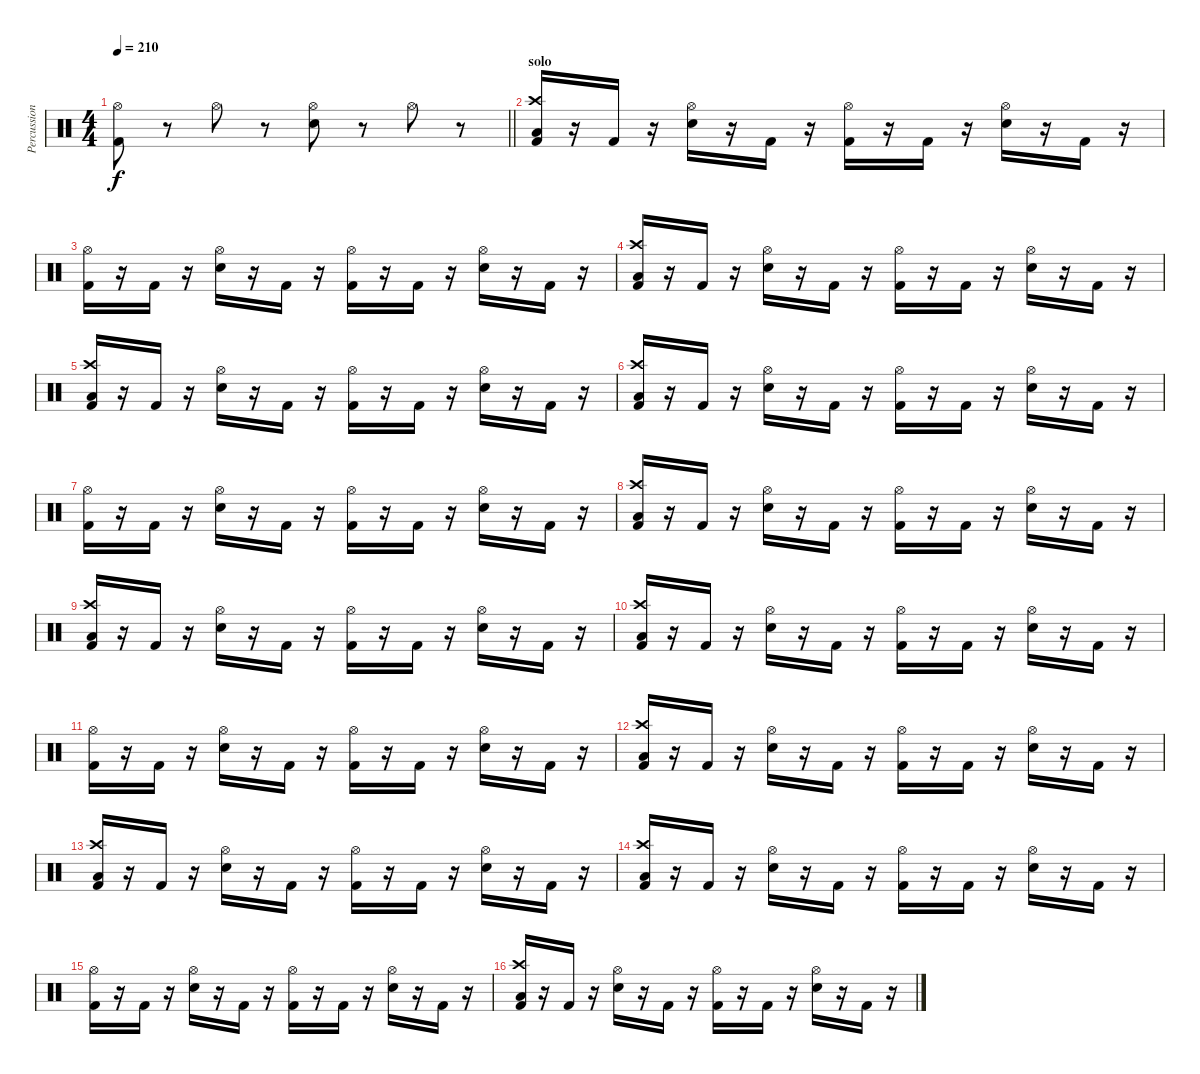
\track ("Percussion" "Percussion") {instrument percussion}
\staff {score}
\articulation defaults
\ts (4 4)
\tempo 210
\clef neutral
\barLineRight lightlight
\ks c
("Hi-Hat (open)" "Kick (hit) 2").8{dy f} r.8 "Hi-Hat (open)".8 r.8 ("Hi-Hat (open)" "Snare (hit) 2").8 r.8 "Hi-Hat (open)".8 r.8 |
\section ("" "solo")
("Crash high (hit)" "Low Floor Tom (hit)" "Kick (hit) 2").16 r.16 "Kick (hit) 2".16 r.16 ("Hi-Hat (open)" "Snare (hit) 2").16 r.16 "Kick (hit) 2".16 r.16 ("Hi-Hat (open)" "Kick (hit) 2").16 r.16 "Kick (hit) 2".16 r.16 ("Hi-Hat (open)" "Snare (hit) 2").16 r.16 "Kick (hit) 2".16 r.16 |
("Hi-Hat (open)" "Kick (hit) 2").16 r.16 "Kick (hit) 2".16 r.16 ("Hi-Hat (open)" "Snare (hit) 2").16 r.16 "Kick (hit) 2".16 r.16 ("Hi-Hat (open)" "Kick (hit) 2").16 r.16 "Kick (hit) 2".16 r.16 ("Hi-Hat (open)" "Snare (hit) 2").16 r.16 "Kick (hit) 2".16 r.16 |
("Crash high (hit)" "Low Floor Tom (hit)" "Kick (hit) 2").16 r.16 "Kick (hit) 2".16 r.16 ("Hi-Hat (open)" "Snare (hit) 2").16 r.16 "Kick (hit) 2".16 r.16 ("Hi-Hat (open)" "Kick (hit) 2").16 r.16 "Kick (hit) 2".16 r.16 ("Hi-Hat (open)" "Snare (hit) 2").16 r.16 "Kick (hit) 2".16 r.16 |
("Crash high (hit)" "Low Floor Tom (hit)" "Kick (hit) 2").16 r.16 "Kick (hit) 2".16 r.16 ("Hi-Hat (open)" "Snare (hit) 2").16 r.16 "Kick (hit) 2".16 r.16 ("Hi-Hat (open)" "Kick (hit) 2").16 r.16 "Kick (hit) 2".16 r.16 ("Hi-Hat (open)" "Snare (hit) 2").16 r.16 "Kick (hit) 2".16 r.16 |
("Crash high (hit)" "Low Floor Tom (hit)" "Kick (hit) 2").16 r.16 "Kick (hit) 2".16 r.16 ("Hi-Hat (open)" "Snare (hit) 2").16 r.16 "Kick (hit) 2".16 r.16 ("Hi-Hat (open)" "Kick (hit) 2").16 r.16 "Kick (hit) 2".16 r.16 ("Hi-Hat (open)" "Snare (hit) 2").16 r.16 "Kick (hit) 2".16 r.16 |
("Hi-Hat (open)" "Kick (hit) 2").16 r.16 "Kick (hit) 2".16 r.16 ("Hi-Hat (open)" "Snare (hit) 2").16 r.16 "Kick (hit) 2".16 r.16 ("Hi-Hat (open)" "Kick (hit) 2").16 r.16 "Kick (hit) 2".16 r.16 ("Hi-Hat (open)" "Snare (hit) 2").16 r.16 "Kick (hit) 2".16 r.16 |
("Crash high (hit)" "Low Floor Tom (hit)" "Kick (hit) 2").16 r.16 "Kick (hit) 2".16 r.16 ("Hi-Hat (open)" "Snare (hit) 2").16 r.16 "Kick (hit) 2".16 r.16 ("Hi-Hat (open)" "Kick (hit) 2").16 r.16 "Kick (hit) 2".16 r.16 ("Hi-Hat (open)" "Snare (hit) 2").16 r.16 "Kick (hit) 2".16 r.16 |
("Crash high (hit)" "Low Floor Tom (hit)" "Kick (hit) 2").16 r.16 "Kick (hit) 2".16 r.16 ("Hi-Hat (open)" "Snare (hit) 2").16 r.16 "Kick (hit) 2".16 r.16 ("Hi-Hat (open)" "Kick (hit) 2").16 r.16 "Kick (hit) 2".16 r.16 ("Hi-Hat (open)" "Snare (hit) 2").16 r.16 "Kick (hit) 2".16 r.16 |
("Crash high (hit)" "Low Floor Tom (hit)" "Kick (hit) 2").16 r.16 "Kick (hit) 2".16 r.16 ("Hi-Hat (open)" "Snare (hit) 2").16 r.16 "Kick (hit) 2".16 r.16 ("Hi-Hat (open)" "Kick (hit) 2").16 r.16 "Kick (hit) 2".16 r.16 ("Hi-Hat (open)" "Snare (hit) 2").16 r.16 "Kick (hit) 2".16 r.16 |
("Hi-Hat (open)" "Kick (hit) 2").16 r.16 "Kick (hit) 2".16 r.16 ("Hi-Hat (open)" "Snare (hit) 2").16 r.16 "Kick (hit) 2".16 r.16 ("Hi-Hat (open)" "Kick (hit) 2").16 r.16 "Kick (hit) 2".16 r.16 ("Hi-Hat (open)" "Snare (hit) 2").16 r.16 "Kick (hit) 2".16 r.16 |
("Crash high (hit)" "Low Floor Tom (hit)" "Kick (hit) 2").16 r.16 "Kick (hit) 2".16 r.16 ("Hi-Hat (open)" "Snare (hit) 2").16 r.16 "Kick (hit) 2".16 r.16 ("Hi-Hat (open)" "Kick (hit) 2").16 r.16 "Kick (hit) 2".16 r.16 ("Hi-Hat (open)" "Snare (hit) 2").16 r.16 "Kick (hit) 2".16 r.16 |
("Crash high (hit)" "Low Floor Tom (hit)" "Kick (hit) 2").16 r.16 "Kick (hit) 2".16 r.16 ("Hi-Hat (open)" "Snare (hit) 2").16 r.16 "Kick (hit) 2".16 r.16 ("Hi-Hat (open)" "Kick (hit) 2").16 r.16 "Kick (hit) 2".16 r.16 ("Hi-Hat (open)" "Snare (hit) 2").16 r.16 "Kick (hit) 2".16 r.16 |
("Crash high (hit)" "Low Floor Tom (hit)" "Kick (hit) 2").16 r.16 "Kick (hit) 2".16 r.16 ("Hi-Hat (open)" "Snare (hit) 2").16 r.16 "Kick (hit) 2".16 r.16 ("Hi-Hat (open)" "Kick (hit) 2").16 r.16 "Kick (hit) 2".16 r.16 ("Hi-Hat (open)" "Snare (hit) 2").16 r.16 "Kick (hit) 2".16 r.16 |
("Hi-Hat (open)" "Kick (hit) 2").16 r.16 "Kick (hit) 2".16 r.16 ("Hi-Hat (open)" "Snare (hit) 2").16 r.16 "Kick (hit) 2".16 r.16 ("Hi-Hat (open)" "Kick (hit) 2").16 r.16 "Kick (hit) 2".16 r.16 ("Hi-Hat (open)" "Snare (hit) 2").16 r.16 "Kick (hit) 2".16 r.16 |
("Crash high (hit)" "Low Floor Tom (hit)" "Kick (hit) 2").16 r.16 "Kick (hit) 2".16 r.16 ("Hi-Hat (open)" "Snare (hit) 2").16 r.16 "Kick (hit) 2".16 r.16 ("Hi-Hat (open)" "Kick (hit) 2").16 r.16 "Kick (hit) 2".16 r.16 ("Hi-Hat (open)" "Snare (hit) 2").16 r.16 "Kick (hit) 2".16 r.16
